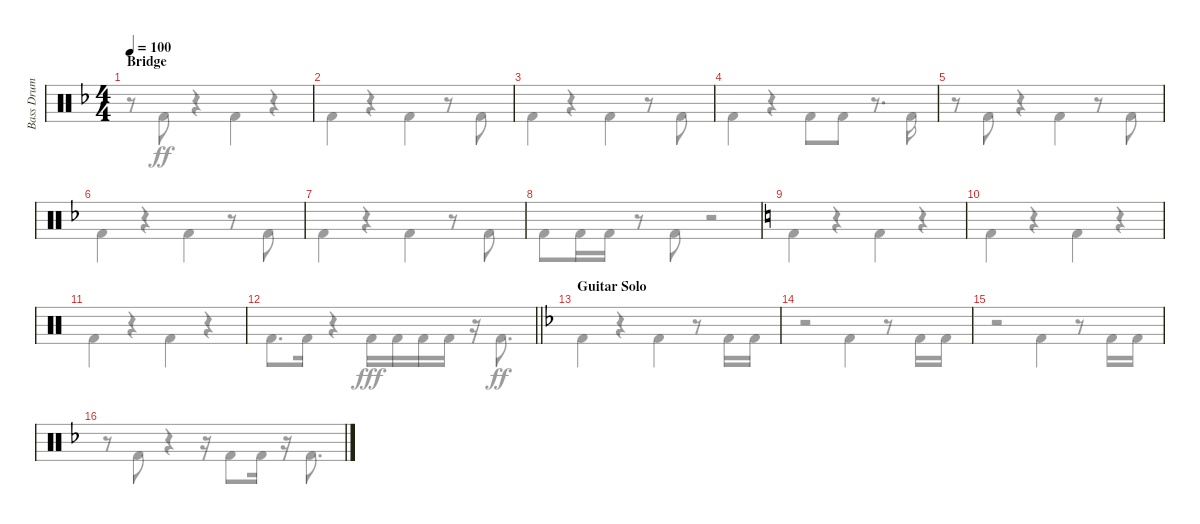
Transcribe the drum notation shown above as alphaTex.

\track ("Bass Drum" "Bass Drum") {instrument percussion}
\staff {score}
\articulation defaults
\voice
\ts (4 4)
\section ("" "Bridge")
\tempo 100
\clef neutral
\ks dminor
|
|
|
|
|
|
|
|
\ks aminor
|
|
|
\barLineRight lightlight
|
\section ("" "Guitar Solo")
\ks dminor
|
|
|
\voice
\clef neutral
\ks dminor
r.8{dy ff} "Kick (hit) 2".8 r.4 "Kick (hit) 2".4 r.4 |
"Kick (hit) 2".4 r.4 "Kick (hit) 2".4 r.8 "Kick (hit) 2".8 |
"Kick (hit) 2".4 r.4 "Kick (hit) 2".4 r.8 "Kick (hit) 2".8 |
"Kick (hit) 2".4 r.4 "Kick (hit) 2".8 "Kick (hit) 2".8 r.8{d} "Kick (hit) 2".16 |
r.8 "Kick (hit) 2".8 r.4 "Kick (hit) 2".4 r.8 "Kick (hit) 2".8 |
"Kick (hit) 2".4 r.4 "Kick (hit) 2".4 r.8 "Kick (hit) 2".8 |
"Kick (hit) 2".4 r.4 "Kick (hit) 2".4 r.8 "Kick (hit) 2".8 |
"Kick (hit) 2".8 "Kick (hit) 2".16 "Kick (hit) 2".16 r.8 "Kick (hit) 2".8 r.2 |
\ks aminor "Kick (hit) 2".4
r.4 "Kick (hit) 2".4 r.4 |
"Kick (hit) 2".4 r.4 "Kick (hit) 2".4 r.4 |
"Kick (hit) 2".4 r.4 "Kick (hit) 2".4 r.4 |
\barLineRight lightlight "Kick (hit) 2".8{d} "Kick (hit) 2".16
r.4 "Kick (hit) 2".16{dy fff} "Kick (hit) 2".16 "Kick (hit) 2".16 "Kick (hit) 2".16 r.16 "Kick (hit) 2".8{d dy ff} |
\ks dminor "Kick (hit) 2".4
r.4 "Kick (hit) 2".4 r.8 "Kick (hit) 2".16 "Kick (hit) 2".16 |
r.2 "Kick (hit) 2".4 r.8 "Kick (hit) 2".16 "Kick (hit) 2".16 |
r.2 "Kick (hit) 2".4 r.8 "Kick (hit) 2".16 "Kick (hit) 2".16 |
r.8 "Kick (hit) 2".8 r.4 r.16 "Kick (hit) 2".8 "Kick (hit) 2".16 r.16 "Kick (hit) 2".8{d}
